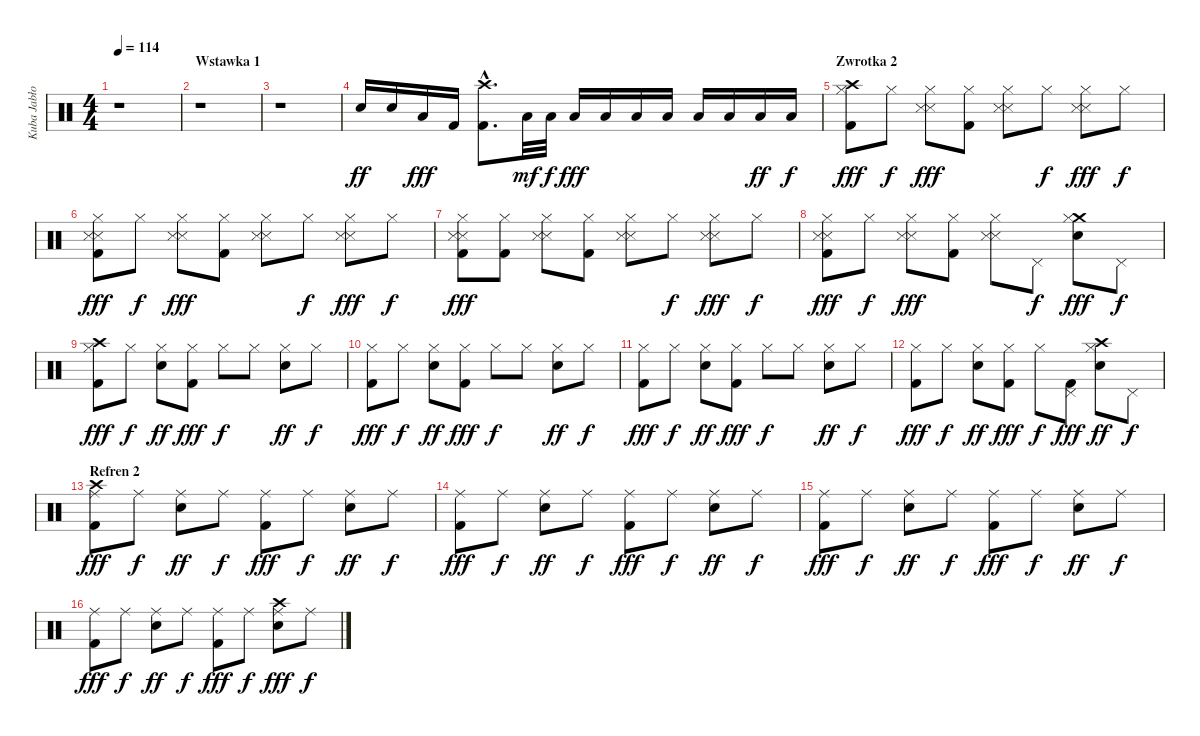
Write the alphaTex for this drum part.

\track ("Kuba Jabłoński" "Kuba Jabło") {instrument percussion}
\staff {score}
\articulation defaults
\ts (4 4)
\tempo 114
\clef neutral
\ks c
r.1{dy f} |
\section ("" "Wstawka 1")
r.1 |
r.1 |
"Snare (hit) 2".16{dy ff} "Snare (hit) 2".16 "Low Floor Tom (hit)".16{dy fff} "Kick (hit) 2".16 ("Kick (hit) 2" "Crash high (hit)"{hac}).8{d} "Low Tom (hit)".32{dy mf} "Low Tom (hit)".32{dy f} "Low Tom (hit)".16{dy fff} "Low Tom (hit)".16 "Low Tom (hit)".16 "Low Tom (hit)".16 "Low Floor Tom (hit)".16 "Low Floor Tom (hit)".16 "Low Floor Tom (hit)".16{dy ff} "Low Floor Tom (hit)".16{dy f} |
\section ("" "Zwrotka 2")
("Kick (hit) 2" "Hi-Hat (closed)" "Crash high (hit)").8{dy fff} "Hi-Hat (closed)".8{dy f} ("Snare (side stick) 3" "Snare (side stick) 3" "Hi-Hat (closed)").8{dy fff} ("Kick (hit) 2" "Hi-Hat (closed)").8 ("Snare (side stick) 3" "Snare (side stick) 3" "Hi-Hat (closed)").8 "Hi-Hat (closed)".8{dy f} ("Snare (side stick) 3" "Snare (side stick) 3" "Hi-Hat (closed)").8{dy fff} "Hi-Hat (closed)".8{dy f} |
("Snare (side stick) 3" "Kick (hit) 2" "Snare (side stick) 3" "Hi-Hat (closed)").8{dy fff} "Hi-Hat (closed)".8{dy f} ("Snare (side stick) 3" "Snare (side stick) 3" "Hi-Hat (closed)").8{dy fff} ("Kick (hit) 2" "Hi-Hat (closed)").8 ("Snare (side stick) 3" "Snare (side stick) 3" "Hi-Hat (closed)").8 "Hi-Hat (closed)".8{dy f} ("Snare (side stick) 3" "Snare (side stick) 3" "Hi-Hat (closed)").8{dy fff} "Hi-Hat (closed)".8{dy f} |
("Snare (side stick) 3" "Kick (hit) 2" "Snare (side stick) 3" "Hi-Hat (closed)").8{dy fff} ("Kick (hit) 2" "Hi-Hat (closed)").8 ("Snare (side stick) 3" "Snare (side stick) 3" "Hi-Hat (closed)").8 ("Kick (hit) 2" "Hi-Hat (closed)").8 ("Snare (side stick) 3" "Snare (side stick) 3" "Hi-Hat (closed)").8 "Hi-Hat (closed)".8{dy f} ("Snare (side stick) 3" "Snare (side stick) 3" "Hi-Hat (closed)").8{dy fff} "Hi-Hat (closed)".8{dy f} |
("Snare (side stick) 3" "Kick (hit) 2" "Snare (side stick) 3" "Hi-Hat (closed)").8{dy fff} "Hi-Hat (closed)".8{dy f} ("Snare (side stick) 3" "Snare (side stick) 3" "Hi-Hat (closed)").8{dy fff} ("Kick (hit) 2" "Hi-Hat (closed)").8 ("Snare (side stick) 3" "Snare (side stick) 3" "Hi-Hat (closed)").8 "Pedal Hi-Hat (hit)".8{dy f} ("Electric Snare (hit)" "Crash medium (hit)" "Hi-Hat (closed)").8{dy fff} "Pedal Hi-Hat (hit)".8{dy f} |
("Kick (hit) 2" "Hi-Hat (closed)" "Crash high (hit)").8{dy fff} "Hi-Hat (closed)".8{dy f} ("Snare (hit) 2" "Hi-Hat (closed)").8{dy ff} ("Kick (hit) 2" "Hi-Hat (closed)").8{dy fff} "Hi-Hat (closed)".8{dy f} "Hi-Hat (closed)".8 ("Snare (hit) 2" "Hi-Hat (closed)").8{dy ff} "Hi-Hat (closed)".8{dy f} |
("Kick (hit) 2" "Hi-Hat (closed)").8{dy fff} "Hi-Hat (closed)".8{dy f} ("Snare (hit) 2" "Hi-Hat (closed)").8{dy ff} ("Kick (hit) 2" "Hi-Hat (closed)").8{dy fff} "Hi-Hat (closed)".8{dy f} "Hi-Hat (closed)".8 ("Snare (hit) 2" "Hi-Hat (closed)").8{dy ff} "Hi-Hat (closed)".8{dy f} |
("Kick (hit) 2" "Hi-Hat (closed)").8{dy fff} "Hi-Hat (closed)".8{dy f} ("Snare (hit) 2" "Hi-Hat (closed)").8{dy ff} ("Kick (hit) 2" "Hi-Hat (closed)").8{dy fff} "Hi-Hat (closed)".8{dy f} "Hi-Hat (closed)".8 ("Snare (hit) 2" "Hi-Hat (closed)").8{dy ff} "Hi-Hat (closed)".8{dy f} |
("Kick (hit) 2" "Hi-Hat (closed)").8{dy fff} "Hi-Hat (closed)".8{dy f} ("Snare (hit) 2" "Hi-Hat (closed)").8{dy ff} ("Kick (hit) 2" "Hi-Hat (closed)").8{dy fff} "Hi-Hat (closed)".8{dy f} ("Kick (hit) 2" "Pedal Hi-Hat (hit)").8{dy fff} ("Crash high (hit)" "Snare (hit) 2" "Hi-Hat (closed)").8{dy ff} "Pedal Hi-Hat (hit)".8{dy f} |
\section ("" "Refren 2")
("Kick (hit) 2" "Ride (middle)" "Crash high (hit)").8{dy fff} "Ride (middle)".8{dy f} ("Snare (hit) 2" "Ride (middle)").8{dy ff} "Ride (middle)".8{dy f} ("Kick (hit) 2" "Ride (middle)").8{dy fff} "Ride (middle)".8{dy f} ("Snare (hit) 2" "Ride (middle)").8{dy ff} "Ride (middle)".8{dy f} |
("Kick (hit) 2" "Ride (middle)").8{dy fff} "Ride (middle)".8{dy f} ("Snare (hit) 2" "Ride (middle)").8{dy ff} "Ride (middle)".8{dy f} ("Kick (hit) 2" "Ride (middle)").8{dy fff} "Ride (middle)".8{dy f} ("Snare (hit) 2" "Ride (middle)").8{dy ff} "Ride (middle)".8{dy f} |
("Kick (hit) 2" "Ride (middle)").8{dy fff} "Ride (middle)".8{dy f} ("Snare (hit) 2" "Ride (middle)").8{dy ff} "Ride (middle)".8{dy f} ("Kick (hit) 2" "Ride (middle)").8{dy fff} "Ride (middle)".8{dy f} ("Snare (hit) 2" "Ride (middle)").8{dy ff} "Ride (middle)".8{dy f} |
("Kick (hit) 2" "Ride (middle)").8{dy fff} "Ride (middle)".8{dy f} ("Snare (hit) 2" "Ride (middle)").8{dy ff} "Ride (middle)".8{dy f} ("Kick (hit) 2" "Ride (middle)").8{dy fff} "Ride (middle)".8{dy f} ("Snare (hit) 2" "Ride (middle)" "Crash high (hit)").8{dy fff} "Ride (middle)".8{dy f}
